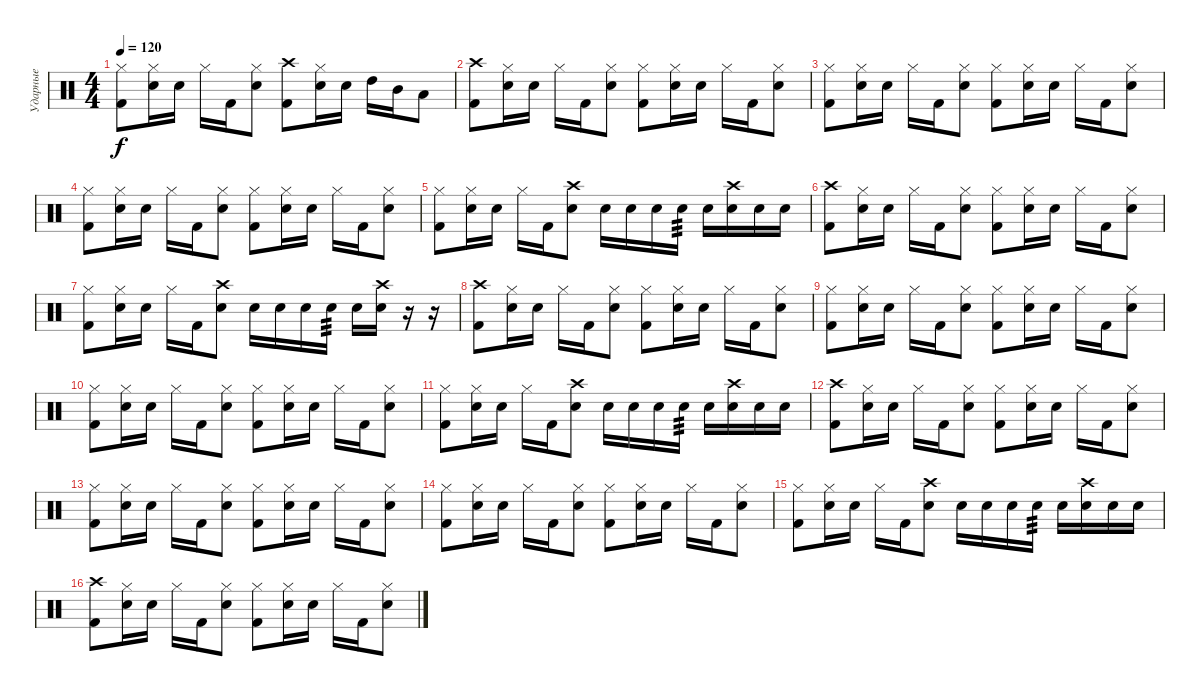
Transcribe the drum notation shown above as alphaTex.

\track ("Ударные" "Ударные") {instrument percussion}
\staff {score}
\articulation defaults
\ts (4 4)
\tempo 120
\clef neutral
\ks c
("Kick (hit) 2" "Hi-Hat (closed)").8{dy f} ("Electric Snare (hit)" "Hi-Hat (closed)").16 "Electric Snare (hit)".16 "Hi-Hat (closed)".16 "Kick (hit) 2".16 ("Electric Snare (hit)" "Hi-Hat (closed)").8 ("Kick (hit) 2" "Crash high (hit)").8 ("Electric Snare (hit)" "Hi-Hat (closed)").16 "Electric Snare (hit)".16 "High Tom (hit)".16 "Mid Tom (hit)".16 "Low Tom (hit)".8 |
("Kick (hit) 2" "Crash high (hit)").8 ("Electric Snare (hit)" "Hi-Hat (closed)").16 "Electric Snare (hit)".16 "Hi-Hat (closed)".16 "Kick (hit) 2".16 ("Electric Snare (hit)" "Hi-Hat (closed)").8 ("Kick (hit) 2" "Hi-Hat (closed)").8 ("Electric Snare (hit)" "Hi-Hat (closed)").16 "Electric Snare (hit)".16 "Hi-Hat (closed)".16 "Kick (hit) 2".16 ("Electric Snare (hit)" "Hi-Hat (closed)").8 |
("Kick (hit) 2" "Hi-Hat (closed)").8 ("Electric Snare (hit)" "Hi-Hat (closed)").16 "Electric Snare (hit)".16 "Hi-Hat (closed)".16 "Kick (hit) 2".16 ("Electric Snare (hit)" "Hi-Hat (closed)").8 ("Kick (hit) 2" "Hi-Hat (closed)").8 ("Electric Snare (hit)" "Hi-Hat (closed)").16 "Electric Snare (hit)".16 "Hi-Hat (closed)".16 "Kick (hit) 2".16 ("Electric Snare (hit)" "Hi-Hat (closed)").8 |
("Kick (hit) 2" "Hi-Hat (closed)").8 ("Electric Snare (hit)" "Hi-Hat (closed)").16 "Electric Snare (hit)".16 "Hi-Hat (closed)".16 "Kick (hit) 2".16 ("Electric Snare (hit)" "Hi-Hat (closed)").8 ("Kick (hit) 2" "Hi-Hat (closed)").8 ("Electric Snare (hit)" "Hi-Hat (closed)").16 "Electric Snare (hit)".16 "Hi-Hat (closed)".16 "Kick (hit) 2".16 ("Electric Snare (hit)" "Hi-Hat (closed)").8 |
("Kick (hit) 2" "Hi-Hat (closed)").8 ("Electric Snare (hit)" "Hi-Hat (closed)").16 "Electric Snare (hit)".16 "Hi-Hat (closed)".16 "Kick (hit) 2".16 ("Electric Snare (hit)" "Crash high (hit)").8 "Electric Snare (hit)".16 "Electric Snare (hit)".16 "Electric Snare (hit)".16 "Electric Snare (hit)".16{tp 3} "Electric Snare (hit)".16 ("Electric Snare (hit)" "Crash high (hit)").16 "Electric Snare (hit)".16 "Electric Snare (hit)".16 |
("Kick (hit) 2" "Crash high (hit)").8 ("Electric Snare (hit)" "Hi-Hat (closed)").16 "Electric Snare (hit)".16 "Hi-Hat (closed)".16 "Kick (hit) 2".16 ("Electric Snare (hit)" "Hi-Hat (closed)").8 ("Kick (hit) 2" "Hi-Hat (closed)").8 ("Electric Snare (hit)" "Hi-Hat (closed)").16 "Electric Snare (hit)".16 "Hi-Hat (closed)".16 "Kick (hit) 2".16 ("Electric Snare (hit)" "Hi-Hat (closed)").8 |
("Kick (hit) 2" "Hi-Hat (closed)").8 ("Electric Snare (hit)" "Hi-Hat (closed)").16 "Electric Snare (hit)".16 "Hi-Hat (closed)".16 "Kick (hit) 2".16 ("Electric Snare (hit)" "Crash high (hit)").8 "Electric Snare (hit)".16 "Electric Snare (hit)".16 "Electric Snare (hit)".16 "Electric Snare (hit)".16{tp 3} "Electric Snare (hit)".16 ("Electric Snare (hit)" "Crash high (hit)").16 r.16 r.16 |
("Kick (hit) 2" "Crash high (hit)").8 ("Electric Snare (hit)" "Hi-Hat (closed)").16 "Electric Snare (hit)".16 "Hi-Hat (closed)".16 "Kick (hit) 2".16 ("Electric Snare (hit)" "Hi-Hat (closed)").8 ("Kick (hit) 2" "Hi-Hat (closed)").8 ("Electric Snare (hit)" "Hi-Hat (closed)").16 "Electric Snare (hit)".16 "Hi-Hat (closed)".16 "Kick (hit) 2".16 ("Electric Snare (hit)" "Hi-Hat (closed)").8 |
("Kick (hit) 2" "Hi-Hat (closed)").8 ("Electric Snare (hit)" "Hi-Hat (closed)").16 "Electric Snare (hit)".16 "Hi-Hat (closed)".16 "Kick (hit) 2".16 ("Electric Snare (hit)" "Hi-Hat (closed)").8 ("Kick (hit) 2" "Hi-Hat (closed)").8 ("Electric Snare (hit)" "Hi-Hat (closed)").16 "Electric Snare (hit)".16 "Hi-Hat (closed)".16 "Kick (hit) 2".16 ("Electric Snare (hit)" "Hi-Hat (closed)").8 |
("Kick (hit) 2" "Hi-Hat (closed)").8 ("Electric Snare (hit)" "Hi-Hat (closed)").16 "Electric Snare (hit)".16 "Hi-Hat (closed)".16 "Kick (hit) 2".16 ("Electric Snare (hit)" "Hi-Hat (closed)").8 ("Kick (hit) 2" "Hi-Hat (closed)").8 ("Electric Snare (hit)" "Hi-Hat (closed)").16 "Electric Snare (hit)".16 "Hi-Hat (closed)".16 "Kick (hit) 2".16 ("Electric Snare (hit)" "Hi-Hat (closed)").8 |
("Kick (hit) 2" "Hi-Hat (closed)").8 ("Electric Snare (hit)" "Hi-Hat (closed)").16 "Electric Snare (hit)".16 "Hi-Hat (closed)".16 "Kick (hit) 2".16 ("Electric Snare (hit)" "Crash high (hit)").8 "Electric Snare (hit)".16 "Electric Snare (hit)".16 "Electric Snare (hit)".16 "Electric Snare (hit)".16{tp 3} "Electric Snare (hit)".16 ("Electric Snare (hit)" "Crash high (hit)").16 "Electric Snare (hit)".16 "Electric Snare (hit)".16 |
("Kick (hit) 2" "Crash high (hit)").8 ("Electric Snare (hit)" "Hi-Hat (closed)").16 "Electric Snare (hit)".16 "Hi-Hat (closed)".16 "Kick (hit) 2".16 ("Electric Snare (hit)" "Hi-Hat (closed)").8 ("Kick (hit) 2" "Hi-Hat (closed)").8 ("Electric Snare (hit)" "Hi-Hat (closed)").16 "Electric Snare (hit)".16 "Hi-Hat (closed)".16 "Kick (hit) 2".16 ("Electric Snare (hit)" "Hi-Hat (closed)").8 |
("Kick (hit) 2" "Hi-Hat (closed)").8 ("Electric Snare (hit)" "Hi-Hat (closed)").16 "Electric Snare (hit)".16 "Hi-Hat (closed)".16 "Kick (hit) 2".16 ("Electric Snare (hit)" "Hi-Hat (closed)").8 ("Kick (hit) 2" "Hi-Hat (closed)").8 ("Electric Snare (hit)" "Hi-Hat (closed)").16 "Electric Snare (hit)".16 "Hi-Hat (closed)".16 "Kick (hit) 2".16 ("Electric Snare (hit)" "Hi-Hat (closed)").8 |
("Kick (hit) 2" "Hi-Hat (closed)").8 ("Electric Snare (hit)" "Hi-Hat (closed)").16 "Electric Snare (hit)".16 "Hi-Hat (closed)".16 "Kick (hit) 2".16 ("Electric Snare (hit)" "Hi-Hat (closed)").8 ("Kick (hit) 2" "Hi-Hat (closed)").8 ("Electric Snare (hit)" "Hi-Hat (closed)").16 "Electric Snare (hit)".16 "Hi-Hat (closed)".16 "Kick (hit) 2".16 ("Electric Snare (hit)" "Hi-Hat (closed)").8 |
("Kick (hit) 2" "Hi-Hat (closed)").8 ("Electric Snare (hit)" "Hi-Hat (closed)").16 "Electric Snare (hit)".16 "Hi-Hat (closed)".16 "Kick (hit) 2".16 ("Electric Snare (hit)" "Crash high (hit)").8 "Electric Snare (hit)".16 "Electric Snare (hit)".16 "Electric Snare (hit)".16 "Electric Snare (hit)".16{tp 3} "Electric Snare (hit)".16 ("Electric Snare (hit)" "Crash high (hit)").16 "Electric Snare (hit)".16 "Electric Snare (hit)".16 |
("Kick (hit) 2" "Crash high (hit)").8 ("Electric Snare (hit)" "Hi-Hat (closed)").16 "Electric Snare (hit)".16 "Hi-Hat (closed)".16 "Kick (hit) 2".16 ("Electric Snare (hit)" "Hi-Hat (closed)").8 ("Kick (hit) 2" "Hi-Hat (closed)").8 ("Electric Snare (hit)" "Hi-Hat (closed)").16 "Electric Snare (hit)".16 "Hi-Hat (closed)".16 "Kick (hit) 2".16 ("Electric Snare (hit)" "Hi-Hat (closed)").8
